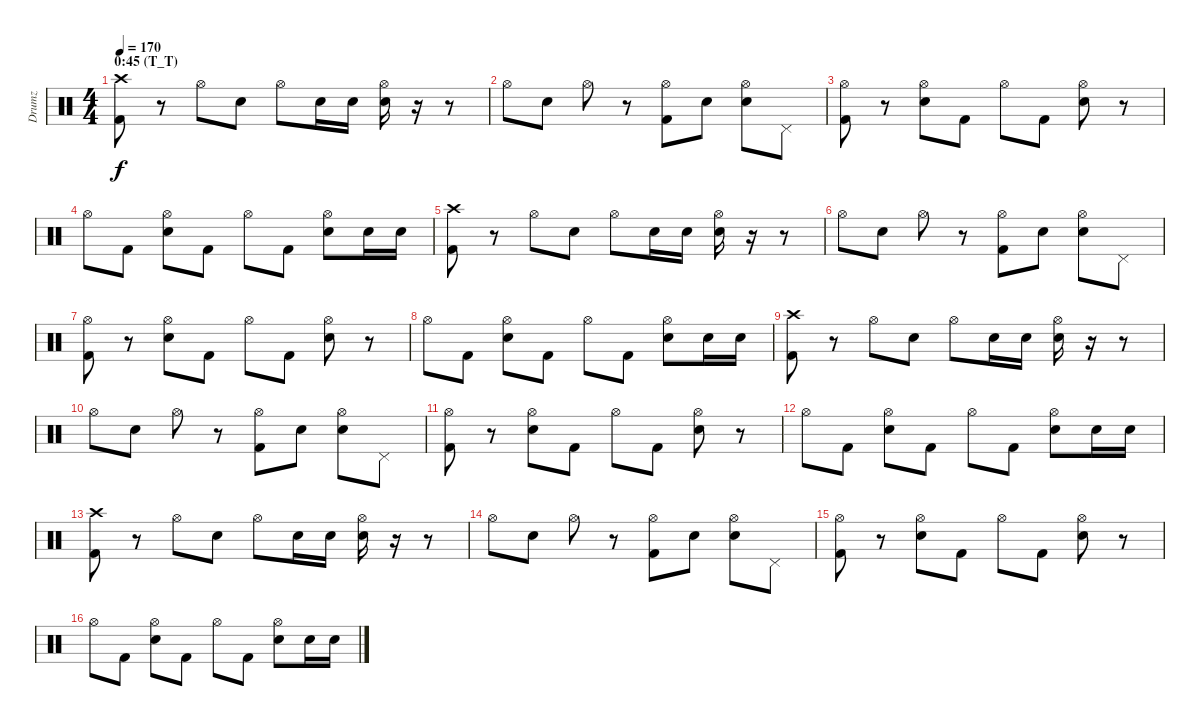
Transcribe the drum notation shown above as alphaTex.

\track ("Drumz" "Drumz") {instrument percussion}
\staff {score}
\articulation defaults
\ts (4 4)
\section ("" "0:45 (T_T)")
\tempo 170
\clef neutral
\ks c
("Crash high (hit)" "Kick (hit) 2").8{dy f} r.8 "Hi-Hat (open)".8 "Electric Snare (hit)".8 "Hi-Hat (open)".8 "Electric Snare (hit)".16 "Electric Snare (hit)".16 ("Hi-Hat (open)" "Electric Snare (hit)").16 r.16 r.8 |
"Hi-Hat (open)".8 "Electric Snare (hit)".8 "Hi-Hat (open)".8 r.8 ("Hi-Hat (open)" "Kick (hit) 2").8 "Electric Snare (hit)".8 ("Hi-Hat (open)" "Electric Snare (hit)").8 "Pedal Hi-Hat (hit)".8 |
("Hi-Hat (open)" "Kick (hit) 2").8 r.8 ("Hi-Hat (open)" "Electric Snare (hit)").8 "Kick (hit) 2".8 "Hi-Hat (open)".8 "Kick (hit) 2".8 ("Hi-Hat (open)" "Electric Snare (hit)").8 r.8 |
"Hi-Hat (open)".8 "Kick (hit) 2".8 ("Hi-Hat (open)" "Electric Snare (hit)").8 "Kick (hit) 2".8 "Hi-Hat (open)".8 "Kick (hit) 2".8 ("Hi-Hat (open)" "Electric Snare (hit)").8 "Electric Snare (hit)".16 "Electric Snare (hit)".16 |
("Crash high (hit)" "Kick (hit) 2").8 r.8 "Hi-Hat (open)".8 "Electric Snare (hit)".8 "Hi-Hat (open)".8 "Electric Snare (hit)".16 "Electric Snare (hit)".16 ("Hi-Hat (open)" "Electric Snare (hit)").16 r.16 r.8 |
"Hi-Hat (open)".8 "Electric Snare (hit)".8 "Hi-Hat (open)".8 r.8 ("Hi-Hat (open)" "Kick (hit) 2").8 "Electric Snare (hit)".8 ("Hi-Hat (open)" "Electric Snare (hit)").8 "Pedal Hi-Hat (hit)".8 |
("Hi-Hat (open)" "Kick (hit) 2").8 r.8 ("Hi-Hat (open)" "Electric Snare (hit)").8 "Kick (hit) 2".8 "Hi-Hat (open)".8 "Kick (hit) 2".8 ("Hi-Hat (open)" "Electric Snare (hit)").8 r.8 |
"Hi-Hat (open)".8 "Kick (hit) 2".8 ("Hi-Hat (open)" "Electric Snare (hit)").8 "Kick (hit) 2".8 "Hi-Hat (open)".8 "Kick (hit) 2".8 ("Hi-Hat (open)" "Electric Snare (hit)").8 "Electric Snare (hit)".16 "Electric Snare (hit)".16 |
("Crash high (hit)" "Kick (hit) 2").8 r.8 "Hi-Hat (open)".8 "Electric Snare (hit)".8 "Hi-Hat (open)".8 "Electric Snare (hit)".16 "Electric Snare (hit)".16 ("Hi-Hat (open)" "Electric Snare (hit)").16 r.16 r.8 |
"Hi-Hat (open)".8 "Electric Snare (hit)".8 "Hi-Hat (open)".8 r.8 ("Hi-Hat (open)" "Kick (hit) 2").8 "Electric Snare (hit)".8 ("Hi-Hat (open)" "Electric Snare (hit)").8 "Pedal Hi-Hat (hit)".8 |
("Hi-Hat (open)" "Kick (hit) 2").8 r.8 ("Hi-Hat (open)" "Electric Snare (hit)").8 "Kick (hit) 2".8 "Hi-Hat (open)".8 "Kick (hit) 2".8 ("Hi-Hat (open)" "Electric Snare (hit)").8 r.8 |
"Hi-Hat (open)".8 "Kick (hit) 2".8 ("Hi-Hat (open)" "Electric Snare (hit)").8 "Kick (hit) 2".8 "Hi-Hat (open)".8 "Kick (hit) 2".8 ("Hi-Hat (open)" "Electric Snare (hit)").8 "Electric Snare (hit)".16 "Electric Snare (hit)".16 |
("Crash high (hit)" "Kick (hit) 2").8 r.8 "Hi-Hat (open)".8 "Electric Snare (hit)".8 "Hi-Hat (open)".8 "Electric Snare (hit)".16 "Electric Snare (hit)".16 ("Hi-Hat (open)" "Electric Snare (hit)").16 r.16 r.8 |
"Hi-Hat (open)".8 "Electric Snare (hit)".8 "Hi-Hat (open)".8 r.8 ("Hi-Hat (open)" "Kick (hit) 2").8 "Electric Snare (hit)".8 ("Hi-Hat (open)" "Electric Snare (hit)").8 "Pedal Hi-Hat (hit)".8 |
("Hi-Hat (open)" "Kick (hit) 2").8 r.8 ("Hi-Hat (open)" "Electric Snare (hit)").8 "Kick (hit) 2".8 "Hi-Hat (open)".8 "Kick (hit) 2".8 ("Hi-Hat (open)" "Electric Snare (hit)").8 r.8 |
"Hi-Hat (open)".8 "Kick (hit) 2".8 ("Hi-Hat (open)" "Electric Snare (hit)").8 "Kick (hit) 2".8 "Hi-Hat (open)".8 "Kick (hit) 2".8 ("Hi-Hat (open)" "Electric Snare (hit)").8 "Electric Snare (hit)".16 "Electric Snare (hit)".16
